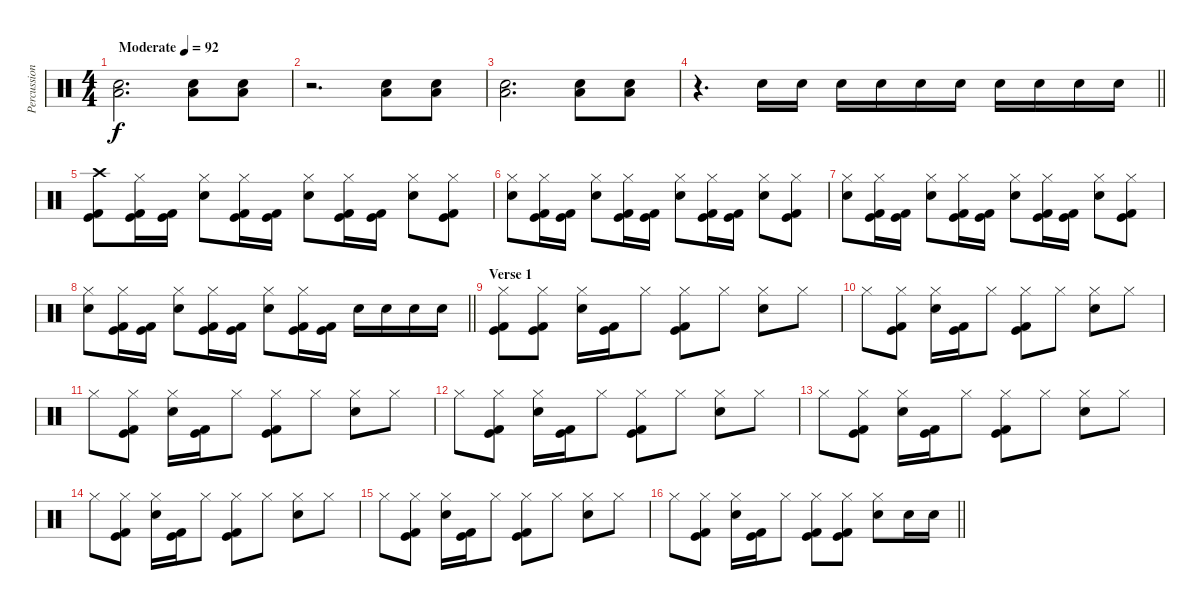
\track ("Percussion" "Percussion") {instrument percussion}
\staff {score}
\articulation defaults
\ts (4 4)
\tempo (92 "Moderate")
\clef neutral
\ks c
("Electric Snare (hit)" "Low Floor Tom (hit)").2{d dy f} ("Electric Snare (hit)" "Low Floor Tom (hit)").8 ("Electric Snare (hit)" "Low Floor Tom (hit)").8 |
r.2{d} ("Electric Snare (hit)" "Low Floor Tom (hit)").8 ("Electric Snare (hit)" "Low Floor Tom (hit)").8 |
("Electric Snare (hit)" "Low Floor Tom (hit)").2{d} ("Electric Snare (hit)" "Low Floor Tom (hit)").8 ("Electric Snare (hit)" "Low Floor Tom (hit)").8 |
\barLineRight lightlight
r.4{d} "Electric Snare (hit)".16 "Electric Snare (hit)".16 "Electric Snare (hit)".16 "Electric Snare (hit)".16 "Electric Snare (hit)".16 "Electric Snare (hit)".16 "Electric Snare (hit)".16 "Electric Snare (hit)".16 "Electric Snare (hit)".16 "Electric Snare (hit)".16 |
\section ("" "")
("Crash high (hit)" "Kick (hit)" "Kick (hit) 2").8 ("Hi-Hat (closed)" "Kick (hit)" "Kick (hit) 2").16 ("Kick (hit)" "Kick (hit) 2").16 ("Hi-Hat (closed)" "Electric Snare (hit)").8 ("Hi-Hat (closed)" "Kick (hit)" "Kick (hit) 2").16 ("Kick (hit)" "Kick (hit) 2").16 ("Hi-Hat (closed)" "Electric Snare (hit)").8 ("Hi-Hat (closed)" "Kick (hit)" "Kick (hit) 2").16 ("Kick (hit)" "Kick (hit) 2").16 ("Hi-Hat (closed)" "Electric Snare (hit)").8 ("Hi-Hat (closed)" "Kick (hit)" "Kick (hit) 2").8 |
("Hi-Hat (closed)" "Electric Snare (hit)").8 ("Hi-Hat (closed)" "Kick (hit)" "Kick (hit) 2").16 ("Kick (hit)" "Kick (hit) 2").16 ("Hi-Hat (closed)" "Electric Snare (hit)").8 ("Hi-Hat (closed)" "Kick (hit)" "Kick (hit) 2").16 ("Kick (hit)" "Kick (hit) 2").16 ("Hi-Hat (closed)" "Electric Snare (hit)").8 ("Hi-Hat (closed)" "Kick (hit)" "Kick (hit) 2").16 ("Kick (hit)" "Kick (hit) 2").16 ("Hi-Hat (closed)" "Electric Snare (hit)").8 ("Hi-Hat (closed)" "Kick (hit)" "Kick (hit) 2").8 |
("Hi-Hat (closed)" "Electric Snare (hit)").8 ("Hi-Hat (closed)" "Kick (hit)" "Kick (hit) 2").16 ("Kick (hit)" "Kick (hit) 2").16 ("Hi-Hat (closed)" "Electric Snare (hit)").8 ("Hi-Hat (closed)" "Kick (hit)" "Kick (hit) 2").16 ("Kick (hit)" "Kick (hit) 2").16 ("Hi-Hat (closed)" "Electric Snare (hit)").8 ("Hi-Hat (closed)" "Kick (hit)" "Kick (hit) 2").16 ("Kick (hit)" "Kick (hit) 2").16 ("Hi-Hat (closed)" "Electric Snare (hit)").8 ("Hi-Hat (closed)" "Kick (hit)" "Kick (hit) 2").8 |
\barLineRight lightlight
("Hi-Hat (closed)" "Electric Snare (hit)").8 ("Hi-Hat (closed)" "Kick (hit)" "Kick (hit) 2").16 ("Kick (hit)" "Kick (hit) 2").16 ("Hi-Hat (closed)" "Electric Snare (hit)").8 ("Hi-Hat (closed)" "Kick (hit)" "Kick (hit) 2").16 ("Kick (hit)" "Kick (hit) 2").16 ("Hi-Hat (closed)" "Electric Snare (hit)").8 ("Hi-Hat (closed)" "Kick (hit)" "Kick (hit) 2").16 ("Kick (hit)" "Kick (hit) 2").16 "Electric Snare (hit)".16 "Electric Snare (hit)".16 "Electric Snare (hit)".16 "Electric Snare (hit)".16 |
\section ("" "Verse 1")
("Hi-Hat (closed)" "Kick (hit)" "Kick (hit) 2").8 ("Hi-Hat (closed)" "Kick (hit)" "Kick (hit) 2").8 ("Hi-Hat (closed)" "Electric Snare (hit)").16 ("Kick (hit)" "Kick (hit) 2").16 "Hi-Hat (closed)".8 ("Hi-Hat (closed)" "Kick (hit)" "Kick (hit) 2").8 "Hi-Hat (closed)".8 ("Hi-Hat (closed)" "Electric Snare (hit)").8 "Hi-Hat (closed)".8 |
"Hi-Hat (closed)".8 ("Hi-Hat (closed)" "Kick (hit)" "Kick (hit) 2").8 ("Hi-Hat (closed)" "Electric Snare (hit)").16 ("Kick (hit)" "Kick (hit) 2").16 "Hi-Hat (closed)".8 ("Hi-Hat (closed)" "Kick (hit)" "Kick (hit) 2").8 "Hi-Hat (closed)".8 ("Hi-Hat (closed)" "Electric Snare (hit)").8 "Hi-Hat (closed)".8 |
"Hi-Hat (closed)".8 ("Hi-Hat (closed)" "Kick (hit)" "Kick (hit) 2").8 ("Hi-Hat (closed)" "Electric Snare (hit)").16 ("Kick (hit)" "Kick (hit) 2").16 "Hi-Hat (closed)".8 ("Hi-Hat (closed)" "Kick (hit)" "Kick (hit) 2").8 "Hi-Hat (closed)".8 ("Hi-Hat (closed)" "Electric Snare (hit)").8 "Hi-Hat (closed)".8 |
"Hi-Hat (closed)".8 ("Hi-Hat (closed)" "Kick (hit)" "Kick (hit) 2").8 ("Hi-Hat (closed)" "Electric Snare (hit)").16 ("Kick (hit)" "Kick (hit) 2").16 "Hi-Hat (closed)".8 ("Hi-Hat (closed)" "Kick (hit)" "Kick (hit) 2").8 "Hi-Hat (closed)".8 ("Hi-Hat (closed)" "Electric Snare (hit)").8 "Hi-Hat (closed)".8 |
"Hi-Hat (closed)".8 ("Hi-Hat (closed)" "Kick (hit)" "Kick (hit) 2").8 ("Hi-Hat (closed)" "Electric Snare (hit)").16 ("Kick (hit)" "Kick (hit) 2").16 "Hi-Hat (closed)".8 ("Hi-Hat (closed)" "Kick (hit)" "Kick (hit) 2").8 "Hi-Hat (closed)".8 ("Hi-Hat (closed)" "Electric Snare (hit)").8 "Hi-Hat (closed)".8 |
"Hi-Hat (closed)".8 ("Hi-Hat (closed)" "Kick (hit)" "Kick (hit) 2").8 ("Hi-Hat (closed)" "Electric Snare (hit)").16 ("Kick (hit)" "Kick (hit) 2").16 "Hi-Hat (closed)".8 ("Hi-Hat (closed)" "Kick (hit)" "Kick (hit) 2").8 "Hi-Hat (closed)".8 ("Hi-Hat (closed)" "Electric Snare (hit)").8 "Hi-Hat (closed)".8 |
"Hi-Hat (closed)".8 ("Hi-Hat (closed)" "Kick (hit)" "Kick (hit) 2").8 ("Hi-Hat (closed)" "Electric Snare (hit)").16 ("Kick (hit)" "Kick (hit) 2").16 "Hi-Hat (closed)".8 ("Hi-Hat (closed)" "Kick (hit)" "Kick (hit) 2").8 "Hi-Hat (closed)".8 ("Hi-Hat (closed)" "Electric Snare (hit)").8 "Hi-Hat (closed)".8 |
\barLineRight lightlight "Hi-Hat (closed)".8
("Hi-Hat (closed)" "Kick (hit)" "Kick (hit) 2").8 ("Hi-Hat (closed)" "Electric Snare (hit)").16 ("Kick (hit)" "Kick (hit) 2").16 "Hi-Hat (closed)".8 ("Hi-Hat (closed)" "Kick (hit)" "Kick (hit) 2").8 ("Hi-Hat (closed)" "Kick (hit)" "Kick (hit) 2").8 ("Hi-Hat (closed)" "Electric Snare (hit)").8 "Electric Snare (hit)".16 "Electric Snare (hit)".16
